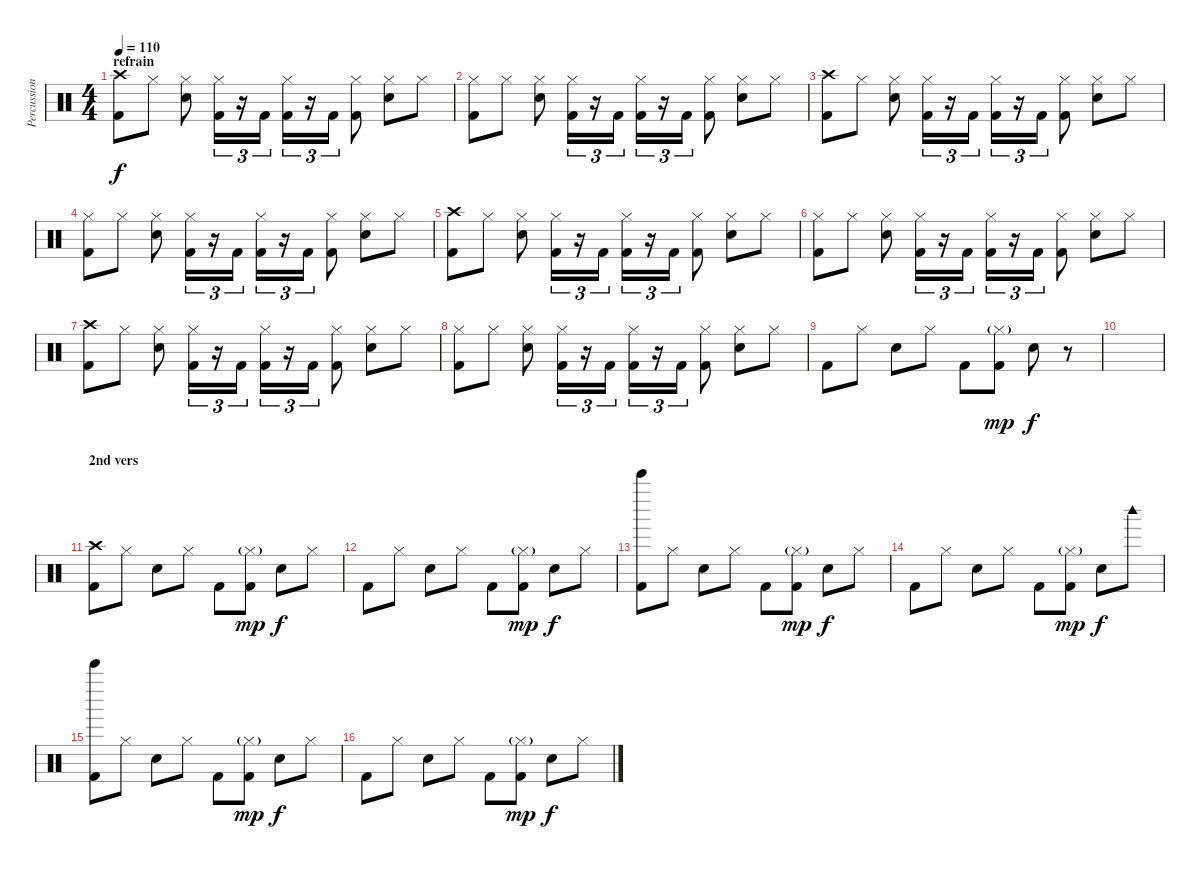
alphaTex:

\track ("Percussion" "Percussion") {instrument percussion}
\staff {score}
\articulation defaults
\ts (4 4)
\section ("" "refrain")
\tempo 110
\clef neutral
\ks c
("Crash high (hit)" "Kick (hit) 2").8{dy f} "Hi-Hat (closed)".8 ("Hi-Hat (closed)" "Electric Snare (hit)").8 ("Hi-Hat (closed)" "Kick (hit) 2").16{tu (3 2)} r.16{tu (3 2)} "Kick (hit) 2".16{tu (3 2)} ("Hi-Hat (closed)" "Kick (hit) 2").16{tu (3 2)} r.16{tu (3 2)} "Kick (hit) 2".16{tu (3 2)} ("Hi-Hat (closed)" "Kick (hit) 2").8 ("Hi-Hat (closed)" "Electric Snare (hit)").8 "Hi-Hat (closed)".8 |
("Hi-Hat (closed)" "Kick (hit) 2").8 "Hi-Hat (closed)".8 ("Hi-Hat (closed)" "Electric Snare (hit)").8 ("Hi-Hat (closed)" "Kick (hit) 2").16{tu (3 2)} r.16{tu (3 2)} "Kick (hit) 2".16{tu (3 2)} ("Hi-Hat (closed)" "Kick (hit) 2").16{tu (3 2)} r.16{tu (3 2)} "Kick (hit) 2".16{tu (3 2)} ("Hi-Hat (closed)" "Kick (hit) 2").8 ("Hi-Hat (closed)" "Electric Snare (hit)").8 "Hi-Hat (closed)".8 |
("Crash high (hit)" "Kick (hit) 2").8 "Hi-Hat (closed)".8 ("Hi-Hat (closed)" "Electric Snare (hit)").8 ("Hi-Hat (closed)" "Kick (hit) 2").16{tu (3 2)} r.16{tu (3 2)} "Kick (hit) 2".16{tu (3 2)} ("Hi-Hat (closed)" "Kick (hit) 2").16{tu (3 2)} r.16{tu (3 2)} "Kick (hit) 2".16{tu (3 2)} ("Hi-Hat (closed)" "Kick (hit) 2").8 ("Hi-Hat (closed)" "Electric Snare (hit)").8 "Hi-Hat (closed)".8 |
("Hi-Hat (closed)" "Kick (hit) 2").8 "Hi-Hat (closed)".8 ("Hi-Hat (closed)" "Electric Snare (hit)").8 ("Hi-Hat (closed)" "Kick (hit) 2").16{tu (3 2)} r.16{tu (3 2)} "Kick (hit) 2".16{tu (3 2)} ("Hi-Hat (closed)" "Kick (hit) 2").16{tu (3 2)} r.16{tu (3 2)} "Kick (hit) 2".16{tu (3 2)} ("Hi-Hat (closed)" "Kick (hit) 2").8 ("Hi-Hat (closed)" "Electric Snare (hit)").8 "Hi-Hat (closed)".8 |
("Crash high (hit)" "Kick (hit) 2").8 "Hi-Hat (closed)".8 ("Hi-Hat (closed)" "Electric Snare (hit)").8 ("Hi-Hat (closed)" "Kick (hit) 2").16{tu (3 2)} r.16{tu (3 2)} "Kick (hit) 2".16{tu (3 2)} ("Hi-Hat (closed)" "Kick (hit) 2").16{tu (3 2)} r.16{tu (3 2)} "Kick (hit) 2".16{tu (3 2)} ("Hi-Hat (closed)" "Kick (hit) 2").8 ("Hi-Hat (closed)" "Electric Snare (hit)").8 "Hi-Hat (closed)".8 |
("Hi-Hat (closed)" "Kick (hit) 2").8 "Hi-Hat (closed)".8 ("Hi-Hat (closed)" "Electric Snare (hit)").8 ("Hi-Hat (closed)" "Kick (hit) 2").16{tu (3 2)} r.16{tu (3 2)} "Kick (hit) 2".16{tu (3 2)} ("Hi-Hat (closed)" "Kick (hit) 2").16{tu (3 2)} r.16{tu (3 2)} "Kick (hit) 2".16{tu (3 2)} ("Hi-Hat (closed)" "Kick (hit) 2").8 ("Hi-Hat (closed)" "Electric Snare (hit)").8 "Hi-Hat (closed)".8 |
("Crash high (hit)" "Kick (hit) 2").8 "Hi-Hat (closed)".8 ("Hi-Hat (closed)" "Electric Snare (hit)").8 ("Hi-Hat (closed)" "Kick (hit) 2").16{tu (3 2)} r.16{tu (3 2)} "Kick (hit) 2".16{tu (3 2)} ("Hi-Hat (closed)" "Kick (hit) 2").16{tu (3 2)} r.16{tu (3 2)} "Kick (hit) 2".16{tu (3 2)} ("Hi-Hat (closed)" "Kick (hit) 2").8 ("Hi-Hat (closed)" "Electric Snare (hit)").8 "Hi-Hat (closed)".8 |
("Hi-Hat (closed)" "Kick (hit) 2").8 "Hi-Hat (closed)".8 ("Hi-Hat (closed)" "Electric Snare (hit)").8 ("Hi-Hat (closed)" "Kick (hit) 2").16{tu (3 2)} r.16{tu (3 2)} "Kick (hit) 2".16{tu (3 2)} ("Hi-Hat (closed)" "Kick (hit) 2").16{tu (3 2)} r.16{tu (3 2)} "Kick (hit) 2".16{tu (3 2)} ("Hi-Hat (closed)" "Kick (hit) 2").8 ("Hi-Hat (closed)" "Electric Snare (hit)").8 "Hi-Hat (closed)".8 |
"Kick (hit) 2".8 "Hi-Hat (closed)".8 "Electric Snare (hit)".8 "Hi-Hat (closed)".8 "Kick (hit) 2".8 ("Hi-Hat (closed)"{g} "Kick (hit) 2").8{dy mp} "Electric Snare (hit)".8{dy f} r.8 |
|
\section ("" "2nd vers")
("Crash high (hit)" "Kick (hit) 2").8 "Hi-Hat (closed)".8 "Electric Snare (hit)".8 "Hi-Hat (closed)".8 "Kick (hit) 2".8 ("Hi-Hat (closed)"{g} "Kick (hit) 2").8{dy mp} "Electric Snare (hit)".8{dy f} "Hi-Hat (closed)".8 |
"Kick (hit) 2".8 "Hi-Hat (closed)".8 "Electric Snare (hit)".8 "Hi-Hat (closed)".8 "Kick (hit) 2".8 ("Hi-Hat (closed)"{g} "Kick (hit) 2").8{dy mp} "Electric Snare (hit)".8{dy f} "Hi-Hat (closed)".8 |
("Bell Tree (hit)" "Kick (hit) 2").8 "Hi-Hat (closed)".8 "Electric Snare (hit)".8 "Hi-Hat (closed)".8 "Kick (hit) 2".8 ("Hi-Hat (closed)"{g} "Kick (hit) 2").8{dy mp} "Electric Snare (hit)".8{dy f} "Hi-Hat (closed)".8 |
"Kick (hit) 2".8 "Hi-Hat (closed)".8 "Electric Snare (hit)".8 "Hi-Hat (closed)".8 "Kick (hit) 2".8 ("Hi-Hat (closed)"{g} "Kick (hit) 2").8{dy mp} "Electric Snare (hit)".8{dy f} "Woodblock high (hit)".8 |
("Bell Tree (hit)" "Kick (hit) 2").8 "Hi-Hat (closed)".8 "Electric Snare (hit)".8 "Hi-Hat (closed)".8 "Kick (hit) 2".8 ("Hi-Hat (closed)"{g} "Kick (hit) 2").8{dy mp} "Electric Snare (hit)".8{dy f} "Hi-Hat (closed)".8 |
"Kick (hit) 2".8 "Hi-Hat (closed)".8 "Electric Snare (hit)".8 "Hi-Hat (closed)".8 "Kick (hit) 2".8 ("Hi-Hat (closed)"{g} "Kick (hit) 2").8{dy mp} "Electric Snare (hit)".8{dy f} "Hi-Hat (closed)".8
